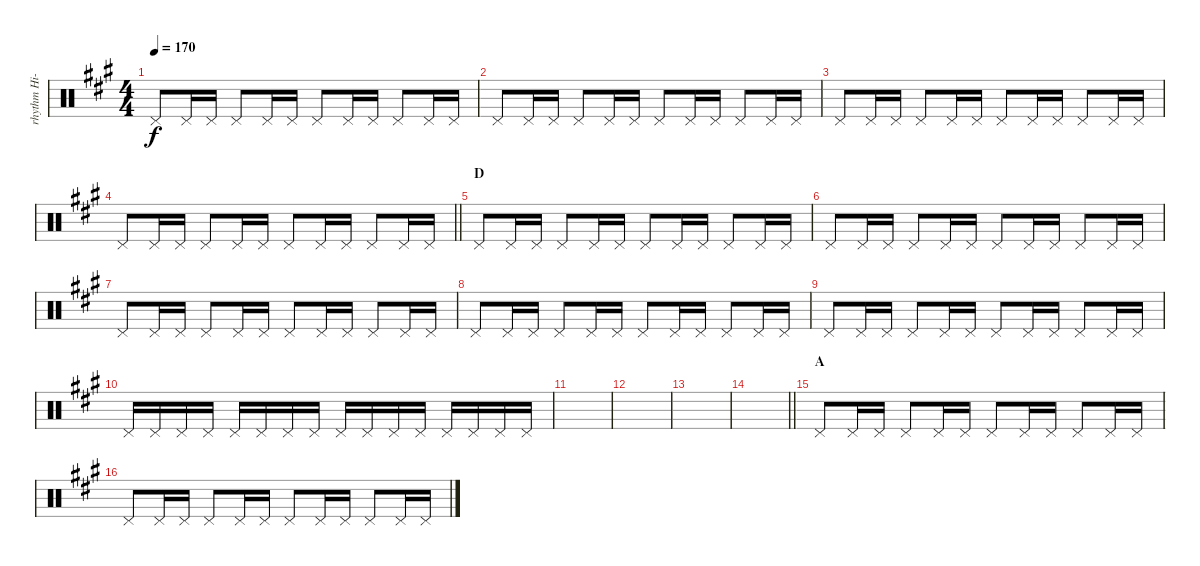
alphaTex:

\track ("rhythm Hi-hat" "rhythm Hi-") {instrument percussion}
\staff {score}
\articulation defaults
\ts (4 4)
\tempo 170
\clef neutral
\ks a "Pedal Hi-Hat (hit)".8{dy f} "Pedal Hi-Hat (hit)".16 "Pedal Hi-Hat (hit)".16 "Pedal Hi-Hat (hit)".8 "Pedal Hi-Hat (hit)".16 "Pedal Hi-Hat (hit)".16 "Pedal Hi-Hat (hit)".8 "Pedal Hi-Hat (hit)".16 "Pedal Hi-Hat (hit)".16 "Pedal Hi-Hat (hit)".8 "Pedal Hi-Hat (hit)".16 "Pedal Hi-Hat (hit)".16
|
"Pedal Hi-Hat (hit)".8 "Pedal Hi-Hat (hit)".16 "Pedal Hi-Hat (hit)".16 "Pedal Hi-Hat (hit)".8 "Pedal Hi-Hat (hit)".16 "Pedal Hi-Hat (hit)".16 "Pedal Hi-Hat (hit)".8 "Pedal Hi-Hat (hit)".16 "Pedal Hi-Hat (hit)".16 "Pedal Hi-Hat (hit)".8 "Pedal Hi-Hat (hit)".16 "Pedal Hi-Hat (hit)".16 |
"Pedal Hi-Hat (hit)".8 "Pedal Hi-Hat (hit)".16 "Pedal Hi-Hat (hit)".16 "Pedal Hi-Hat (hit)".8 "Pedal Hi-Hat (hit)".16 "Pedal Hi-Hat (hit)".16 "Pedal Hi-Hat (hit)".8 "Pedal Hi-Hat (hit)".16 "Pedal Hi-Hat (hit)".16 "Pedal Hi-Hat (hit)".8 "Pedal Hi-Hat (hit)".16 "Pedal Hi-Hat (hit)".16 |
\barLineRight lightlight "Pedal Hi-Hat (hit)".8 "Pedal Hi-Hat (hit)".16 "Pedal Hi-Hat (hit)".16 "Pedal Hi-Hat (hit)".8 "Pedal Hi-Hat (hit)".16 "Pedal Hi-Hat (hit)".16 "Pedal Hi-Hat (hit)".8 "Pedal Hi-Hat (hit)".16 "Pedal Hi-Hat (hit)".16 "Pedal Hi-Hat (hit)".8 "Pedal Hi-Hat (hit)".16 "Pedal Hi-Hat (hit)".16
|
\section ("" "D")
"Pedal Hi-Hat (hit)".8 "Pedal Hi-Hat (hit)".16 "Pedal Hi-Hat (hit)".16 "Pedal Hi-Hat (hit)".8 "Pedal Hi-Hat (hit)".16 "Pedal Hi-Hat (hit)".16 "Pedal Hi-Hat (hit)".8 "Pedal Hi-Hat (hit)".16 "Pedal Hi-Hat (hit)".16 "Pedal Hi-Hat (hit)".8 "Pedal Hi-Hat (hit)".16 "Pedal Hi-Hat (hit)".16 |
"Pedal Hi-Hat (hit)".8 "Pedal Hi-Hat (hit)".16 "Pedal Hi-Hat (hit)".16 "Pedal Hi-Hat (hit)".8 "Pedal Hi-Hat (hit)".16 "Pedal Hi-Hat (hit)".16 "Pedal Hi-Hat (hit)".8 "Pedal Hi-Hat (hit)".16 "Pedal Hi-Hat (hit)".16 "Pedal Hi-Hat (hit)".8 "Pedal Hi-Hat (hit)".16 "Pedal Hi-Hat (hit)".16 |
"Pedal Hi-Hat (hit)".8 "Pedal Hi-Hat (hit)".16 "Pedal Hi-Hat (hit)".16 "Pedal Hi-Hat (hit)".8 "Pedal Hi-Hat (hit)".16 "Pedal Hi-Hat (hit)".16 "Pedal Hi-Hat (hit)".8 "Pedal Hi-Hat (hit)".16 "Pedal Hi-Hat (hit)".16 "Pedal Hi-Hat (hit)".8 "Pedal Hi-Hat (hit)".16 "Pedal Hi-Hat (hit)".16 |
"Pedal Hi-Hat (hit)".8 "Pedal Hi-Hat (hit)".16 "Pedal Hi-Hat (hit)".16 "Pedal Hi-Hat (hit)".8 "Pedal Hi-Hat (hit)".16 "Pedal Hi-Hat (hit)".16 "Pedal Hi-Hat (hit)".8 "Pedal Hi-Hat (hit)".16 "Pedal Hi-Hat (hit)".16 "Pedal Hi-Hat (hit)".8 "Pedal Hi-Hat (hit)".16 "Pedal Hi-Hat (hit)".16 |
"Pedal Hi-Hat (hit)".8 "Pedal Hi-Hat (hit)".16 "Pedal Hi-Hat (hit)".16 "Pedal Hi-Hat (hit)".8 "Pedal Hi-Hat (hit)".16 "Pedal Hi-Hat (hit)".16 "Pedal Hi-Hat (hit)".8 "Pedal Hi-Hat (hit)".16 "Pedal Hi-Hat (hit)".16 "Pedal Hi-Hat (hit)".8 "Pedal Hi-Hat (hit)".16 "Pedal Hi-Hat (hit)".16 |
"Pedal Hi-Hat (hit)".16 "Pedal Hi-Hat (hit)".16 "Pedal Hi-Hat (hit)".16 "Pedal Hi-Hat (hit)".16 "Pedal Hi-Hat (hit)".16 "Pedal Hi-Hat (hit)".16 "Pedal Hi-Hat (hit)".16 "Pedal Hi-Hat (hit)".16 "Pedal Hi-Hat (hit)".16 "Pedal Hi-Hat (hit)".16 "Pedal Hi-Hat (hit)".16 "Pedal Hi-Hat (hit)".16 "Pedal Hi-Hat (hit)".16 "Pedal Hi-Hat (hit)".16 "Pedal Hi-Hat (hit)".16 "Pedal Hi-Hat (hit)".16 |
|
|
|
\barLineRight lightlight
|
\section ("" "A")
"Pedal Hi-Hat (hit)".8 "Pedal Hi-Hat (hit)".16 "Pedal Hi-Hat (hit)".16 "Pedal Hi-Hat (hit)".8 "Pedal Hi-Hat (hit)".16 "Pedal Hi-Hat (hit)".16 "Pedal Hi-Hat (hit)".8 "Pedal Hi-Hat (hit)".16 "Pedal Hi-Hat (hit)".16 "Pedal Hi-Hat (hit)".8 "Pedal Hi-Hat (hit)".16 "Pedal Hi-Hat (hit)".16 |
"Pedal Hi-Hat (hit)".8 "Pedal Hi-Hat (hit)".16 "Pedal Hi-Hat (hit)".16 "Pedal Hi-Hat (hit)".8 "Pedal Hi-Hat (hit)".16 "Pedal Hi-Hat (hit)".16 "Pedal Hi-Hat (hit)".8 "Pedal Hi-Hat (hit)".16 "Pedal Hi-Hat (hit)".16 "Pedal Hi-Hat (hit)".8 "Pedal Hi-Hat (hit)".16 "Pedal Hi-Hat (hit)".16
